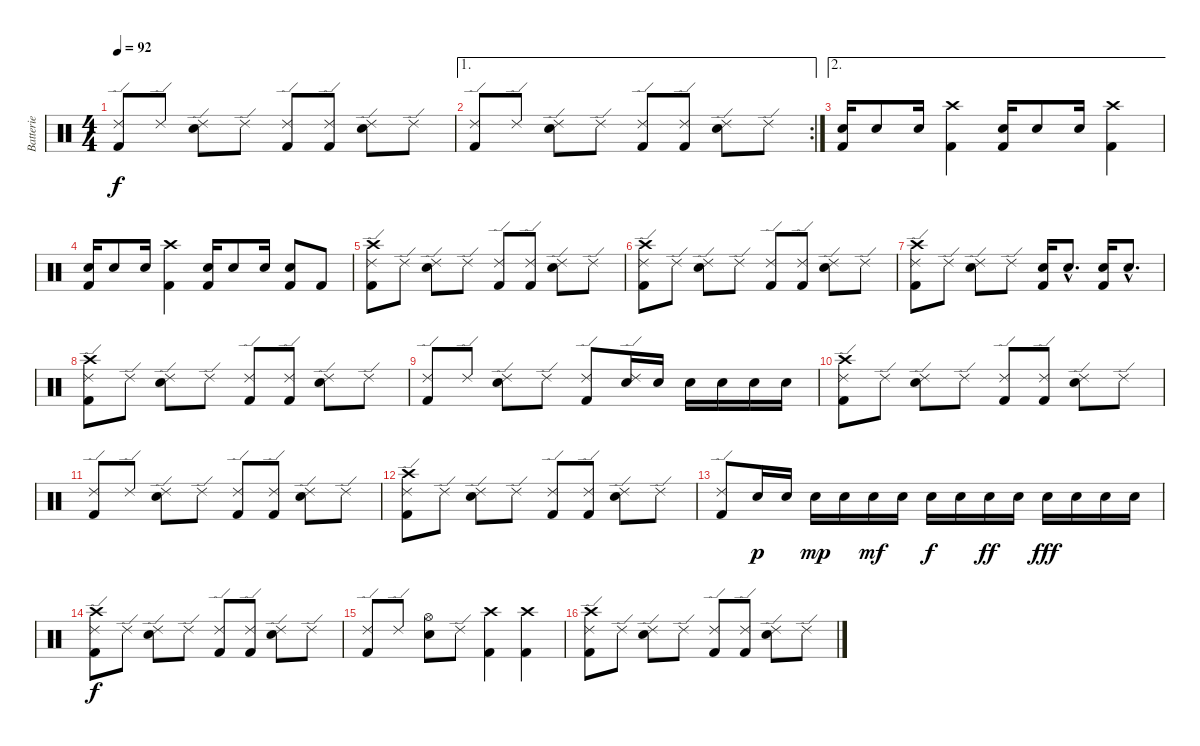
\track ("Batterie" "Batterie") {instrument percussion}
\staff {score}
\articulation defaults
\ts (4 4)
\tempo 92
\clef neutral
\ks c
("Ride (edge) 2" "Kick (hit) 2").8{dy f} "Ride (edge) 2".8 ("Ride (edge) 2" "Electric Snare (hit)").8 "Ride (edge) 2".8 ("Ride (edge) 2" "Kick (hit) 2").8 ("Ride (edge) 2" "Kick (hit) 2").8 ("Ride (edge) 2" "Electric Snare (hit)").8 "Ride (edge) 2".8 |
\ae 1
\rc 2
("Ride (edge) 2" "Kick (hit) 2").8 "Ride (edge) 2".8 ("Ride (edge) 2" "Electric Snare (hit)").8 "Ride (edge) 2".8 ("Ride (edge) 2" "Kick (hit) 2").8 ("Ride (edge) 2" "Kick (hit) 2").8 ("Ride (edge) 2" "Electric Snare (hit)").8 "Ride (edge) 2".8 |
\ae 2
("Kick (hit) 2" "Electric Snare (hit)").16 "Electric Snare (hit)".8 "Electric Snare (hit)".16 ("Kick (hit) 2" "Crash high (hit)").4 ("Kick (hit) 2" "Electric Snare (hit)").16 "Electric Snare (hit)".8 "Electric Snare (hit)".16 ("Kick (hit) 2" "Crash high (hit)").4 |
("Kick (hit) 2" "Electric Snare (hit)").16 "Electric Snare (hit)".8 "Electric Snare (hit)".16 ("Kick (hit) 2" "Crash high (hit)").4 ("Kick (hit) 2" "Electric Snare (hit)").16 "Electric Snare (hit)".8 "Electric Snare (hit)".16 ("Kick (hit) 2" "Electric Snare (hit)").8 "Kick (hit) 2".8 |
("Ride (edge) 2" "Kick (hit) 2" "Crash high (hit)").8 "Ride (edge) 2".8 ("Ride (edge) 2" "Electric Snare (hit)").8 "Ride (edge) 2".8 ("Ride (edge) 2" "Kick (hit) 2").8 ("Ride (edge) 2" "Kick (hit) 2").8 ("Ride (edge) 2" "Electric Snare (hit)").8 "Ride (edge) 2".8 |
("Ride (edge) 2" "Kick (hit) 2" "Crash high (hit)").8 "Ride (edge) 2".8 ("Ride (edge) 2" "Electric Snare (hit)").8 "Ride (edge) 2".8 ("Ride (edge) 2" "Kick (hit) 2").8 ("Ride (edge) 2" "Kick (hit) 2").8 ("Ride (edge) 2" "Electric Snare (hit)").8 "Ride (edge) 2".8 |
("Ride (edge) 2" "Kick (hit) 2" "Crash high (hit)").8 "Ride (edge) 2".8 ("Ride (edge) 2" "Electric Snare (hit)").8 "Ride (edge) 2".8 ("Kick (hit) 2" "Electric Snare (hit)").16 "Electric Snare (hit)"{hac}.8{d} ("Kick (hit) 2" "Electric Snare (hit)").16 "Electric Snare (hit)"{hac}.8{d} |
("Ride (edge) 2" "Kick (hit) 2" "Crash high (hit)").8 "Ride (edge) 2".8 ("Ride (edge) 2" "Electric Snare (hit)").8 "Ride (edge) 2".8 ("Ride (edge) 2" "Kick (hit) 2").8 ("Ride (edge) 2" "Kick (hit) 2").8 ("Ride (edge) 2" "Electric Snare (hit)").8 "Ride (edge) 2".8 |
("Ride (edge) 2" "Kick (hit) 2").8 "Ride (edge) 2".8 ("Ride (edge) 2" "Electric Snare (hit)").8 "Ride (edge) 2".8 ("Ride (edge) 2" "Kick (hit) 2").8 ("Ride (edge) 2" "Electric Snare (hit)").16 "Electric Snare (hit)".16 "Electric Snare (hit)".16 "Electric Snare (hit)".16 "Electric Snare (hit)".16 "Electric Snare (hit)".16 |
("Ride (edge) 2" "Kick (hit) 2" "Crash high (hit)").8 "Ride (edge) 2".8 ("Ride (edge) 2" "Electric Snare (hit)").8 "Ride (edge) 2".8 ("Ride (edge) 2" "Kick (hit) 2").8 ("Ride (edge) 2" "Kick (hit) 2").8 ("Ride (edge) 2" "Electric Snare (hit)").8 "Ride (edge) 2".8 |
("Ride (edge) 2" "Kick (hit) 2").8 "Ride (edge) 2".8 ("Ride (edge) 2" "Electric Snare (hit)").8 "Ride (edge) 2".8 ("Ride (edge) 2" "Kick (hit) 2").8 ("Ride (edge) 2" "Kick (hit) 2").8 ("Ride (edge) 2" "Electric Snare (hit)").8 "Ride (edge) 2".8 |
("Ride (edge) 2" "Kick (hit) 2" "Crash high (hit)").8 "Ride (edge) 2".8 ("Ride (edge) 2" "Electric Snare (hit)").8 "Ride (edge) 2".8 ("Ride (edge) 2" "Kick (hit) 2").8 ("Ride (edge) 2" "Kick (hit) 2").8 ("Ride (edge) 2" "Electric Snare (hit)").8 "Ride (edge) 2".8 |
("Ride (edge) 2" "Kick (hit) 2").8 "Electric Snare (hit)".16{dy p} "Electric Snare (hit)".16 "Electric Snare (hit)".16{dy mp} "Electric Snare (hit)".16 "Electric Snare (hit)".16{dy mf} "Electric Snare (hit)".16 "Electric Snare (hit)".16{dy f} "Electric Snare (hit)".16 "Electric Snare (hit)".16{dy ff} "Electric Snare (hit)".16 "Electric Snare (hit)".16{dy fff} "Electric Snare (hit)".16 "Electric Snare (hit)".16 "Electric Snare (hit)".16 |
("Ride (edge) 2" "Kick (hit) 2" "Crash high (hit)").8{dy f} "Ride (edge) 2".8 ("Ride (edge) 2" "Electric Snare (hit)").8 "Ride (edge) 2".8 ("Ride (edge) 2" "Kick (hit) 2").8 ("Ride (edge) 2" "Kick (hit) 2").8 ("Ride (edge) 2" "Electric Snare (hit)").8 "Ride (edge) 2".8 |
("Ride (edge) 2" "Kick (hit) 2").8 "Ride (edge) 2".8 ("Hi-Hat (open)" "Electric Snare (hit)").8 "Ride (edge) 2".8 ("Kick (hit) 2" "Crash high (hit)").4 ("Kick (hit) 2" "Crash high (hit)").4 |
("Ride (edge) 2" "Kick (hit) 2" "Crash high (hit)").8 "Ride (edge) 2".8 ("Ride (edge) 2" "Electric Snare (hit)").8 "Ride (edge) 2".8 ("Ride (edge) 2" "Kick (hit) 2").8 ("Ride (edge) 2" "Kick (hit) 2").8 ("Ride (edge) 2" "Electric Snare (hit)").8 "Ride (edge) 2".8
